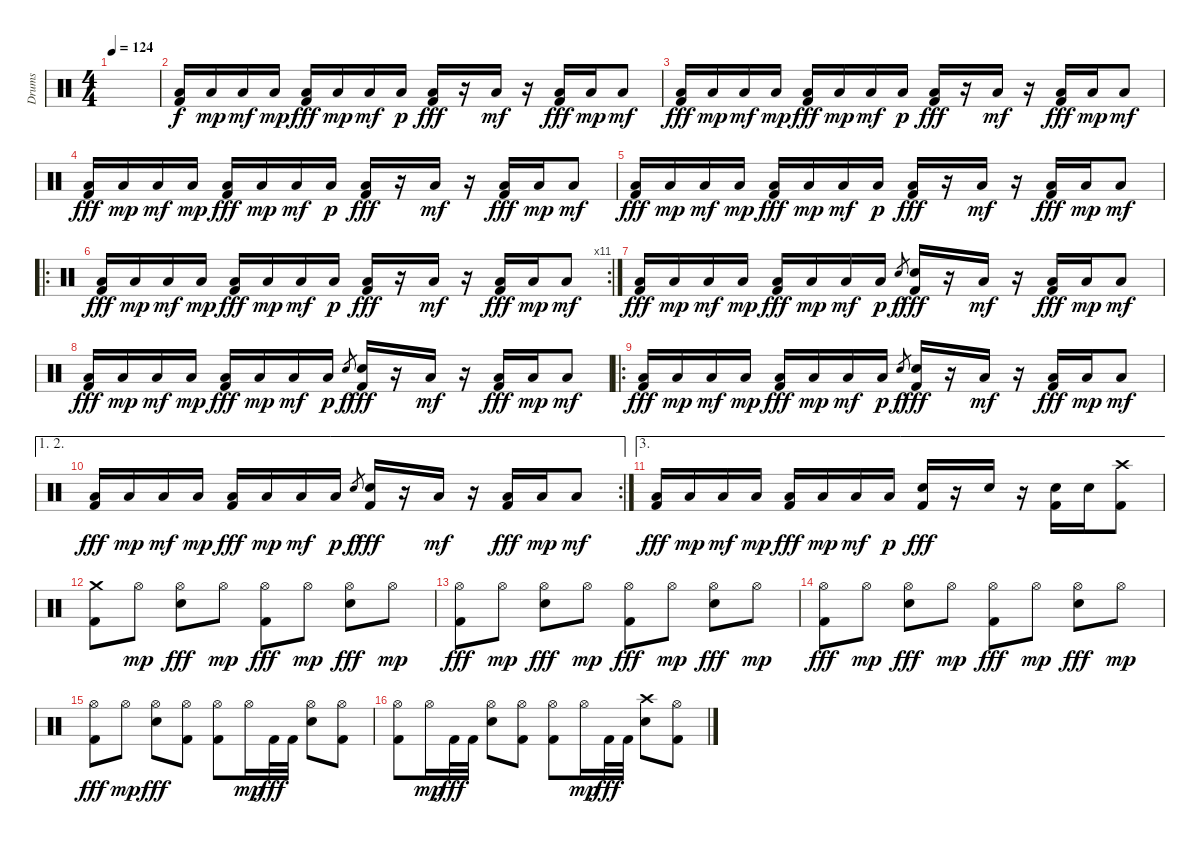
\track ("Drums" "Drums") {instrument percussion}
\staff {score}
\articulation defaults
\ts (4 4)
\tempo 124
\clef neutral
\ks c
|
("Low Floor Tom (hit)" "Kick (hit) 2").16 "Low Floor Tom (hit)".16{dy mp} "Low Floor Tom (hit)".16{dy mf} "Low Floor Tom (hit)".16{dy mp} ("Low Floor Tom (hit)" "Kick (hit) 2").16{dy fff} "Low Floor Tom (hit)".16{dy mp} "Low Floor Tom (hit)".16{dy mf} "Low Floor Tom (hit)".16{dy p} ("Low Floor Tom (hit)" "Kick (hit) 2").16{dy fff} r.16 "Low Floor Tom (hit)".16{dy mf} r.16 ("Low Floor Tom (hit)" "Kick (hit) 2").16{dy fff} "Low Floor Tom (hit)".16{dy mp} "Low Floor Tom (hit)".8{dy mf} |
("Low Floor Tom (hit)" "Kick (hit) 2").16{dy fff} "Low Floor Tom (hit)".16{dy mp} "Low Floor Tom (hit)".16{dy mf} "Low Floor Tom (hit)".16{dy mp} ("Low Floor Tom (hit)" "Kick (hit) 2").16{dy fff} "Low Floor Tom (hit)".16{dy mp} "Low Floor Tom (hit)".16{dy mf} "Low Floor Tom (hit)".16{dy p} ("Low Floor Tom (hit)" "Kick (hit) 2").16{dy fff} r.16 "Low Floor Tom (hit)".16{dy mf} r.16 ("Low Floor Tom (hit)" "Kick (hit) 2").16{dy fff} "Low Floor Tom (hit)".16{dy mp} "Low Floor Tom (hit)".8{dy mf} |
("Low Floor Tom (hit)" "Kick (hit) 2").16{dy fff} "Low Floor Tom (hit)".16{dy mp} "Low Floor Tom (hit)".16{dy mf} "Low Floor Tom (hit)".16{dy mp} ("Low Floor Tom (hit)" "Kick (hit) 2").16{dy fff} "Low Floor Tom (hit)".16{dy mp} "Low Floor Tom (hit)".16{dy mf} "Low Floor Tom (hit)".16{dy p} ("Low Floor Tom (hit)" "Kick (hit) 2").16{dy fff} r.16 "Low Floor Tom (hit)".16{dy mf} r.16 ("Low Floor Tom (hit)" "Kick (hit) 2").16{dy fff} "Low Floor Tom (hit)".16{dy mp} "Low Floor Tom (hit)".8{dy mf} |
("Low Floor Tom (hit)" "Kick (hit) 2").16{dy fff} "Low Floor Tom (hit)".16{dy mp} "Low Floor Tom (hit)".16{dy mf} "Low Floor Tom (hit)".16{dy mp} ("Low Floor Tom (hit)" "Kick (hit) 2").16{dy fff} "Low Floor Tom (hit)".16{dy mp} "Low Floor Tom (hit)".16{dy mf} "Low Floor Tom (hit)".16{dy p} ("Low Floor Tom (hit)" "Kick (hit) 2").16{dy fff} r.16 "Low Floor Tom (hit)".16{dy mf} r.16 ("Low Floor Tom (hit)" "Kick (hit) 2").16{dy fff} "Low Floor Tom (hit)".16{dy mp} "Low Floor Tom (hit)".8{dy mf} |
\ro
\rc 11
("Low Floor Tom (hit)" "Kick (hit) 2").16{dy fff} "Low Floor Tom (hit)".16{dy mp} "Low Floor Tom (hit)".16{dy mf} "Low Floor Tom (hit)".16{dy mp} ("Low Floor Tom (hit)" "Kick (hit) 2").16{dy fff} "Low Floor Tom (hit)".16{dy mp} "Low Floor Tom (hit)".16{dy mf} "Low Floor Tom (hit)".16{dy p} ("Low Floor Tom (hit)" "Kick (hit) 2").16{dy fff} r.16 "Low Floor Tom (hit)".16{dy mf} r.16 ("Low Floor Tom (hit)" "Kick (hit) 2").16{dy fff} "Low Floor Tom (hit)".16{dy mp} "Low Floor Tom (hit)".8{dy mf} |
("Low Floor Tom (hit)" "Kick (hit) 2").16{dy fff} "Low Floor Tom (hit)".16{dy mp} "Low Floor Tom (hit)".16{dy mf} "Low Floor Tom (hit)".16{dy mp} ("Low Floor Tom (hit)" "Kick (hit) 2").16{dy fff} "Low Floor Tom (hit)".16{dy mp} "Low Floor Tom (hit)".16{dy mf} "Low Floor Tom (hit)".16{dy p} "Electric Snare (hit)".8{gr dy f} ("Electric Snare (hit)" "Kick (hit) 2").16{dy fff} r.16 "Low Floor Tom (hit)".16{dy mf} r.16 ("Low Floor Tom (hit)" "Kick (hit) 2").16{dy fff} "Low Floor Tom (hit)".16{dy mp} "Low Floor Tom (hit)".8{dy mf} |
("Low Floor Tom (hit)" "Kick (hit) 2").16{dy fff} "Low Floor Tom (hit)".16{dy mp} "Low Floor Tom (hit)".16{dy mf} "Low Floor Tom (hit)".16{dy mp} ("Low Floor Tom (hit)" "Kick (hit) 2").16{dy fff} "Low Floor Tom (hit)".16{dy mp} "Low Floor Tom (hit)".16{dy mf} "Low Floor Tom (hit)".16{dy p} "Electric Snare (hit)".8{gr dy f} ("Electric Snare (hit)" "Kick (hit) 2").16{dy fff} r.16 "Low Floor Tom (hit)".16{dy mf} r.16 ("Low Floor Tom (hit)" "Kick (hit) 2").16{dy fff} "Low Floor Tom (hit)".16{dy mp} "Low Floor Tom (hit)".8{dy mf} |
\ro
("Low Floor Tom (hit)" "Kick (hit) 2").16{dy fff} "Low Floor Tom (hit)".16{dy mp} "Low Floor Tom (hit)".16{dy mf} "Low Floor Tom (hit)".16{dy mp} ("Low Floor Tom (hit)" "Kick (hit) 2").16{dy fff} "Low Floor Tom (hit)".16{dy mp} "Low Floor Tom (hit)".16{dy mf} "Low Floor Tom (hit)".16{dy p} "Electric Snare (hit)".8{gr dy f} ("Electric Snare (hit)" "Kick (hit) 2").16{dy fff} r.16 "Low Floor Tom (hit)".16{dy mf} r.16 ("Low Floor Tom (hit)" "Kick (hit) 2").16{dy fff} "Low Floor Tom (hit)".16{dy mp} "Low Floor Tom (hit)".8{dy mf} |
\ae (1 2)
\rc 2
("Low Floor Tom (hit)" "Kick (hit) 2").16{dy fff} "Low Floor Tom (hit)".16{dy mp} "Low Floor Tom (hit)".16{dy mf} "Low Floor Tom (hit)".16{dy mp} ("Low Floor Tom (hit)" "Kick (hit) 2").16{dy fff} "Low Floor Tom (hit)".16{dy mp} "Low Floor Tom (hit)".16{dy mf} "Low Floor Tom (hit)".16{dy p} "Electric Snare (hit)".8{gr dy f} ("Electric Snare (hit)" "Kick (hit) 2").16{dy fff} r.16 "Low Floor Tom (hit)".16{dy mf} r.16 ("Low Floor Tom (hit)" "Kick (hit) 2").16{dy fff} "Low Floor Tom (hit)".16{dy mp} "Low Floor Tom (hit)".8{dy mf} |
\ae 3
("Low Floor Tom (hit)" "Kick (hit) 2").16{dy fff} "Low Floor Tom (hit)".16{dy mp} "Low Floor Tom (hit)".16{dy mf} "Low Floor Tom (hit)".16{dy mp} ("Low Floor Tom (hit)" "Kick (hit) 2").16{dy fff} "Low Floor Tom (hit)".16{dy mp} "Low Floor Tom (hit)".16{dy mf} "Low Floor Tom (hit)".16{dy p} ("Electric Snare (hit)" "Kick (hit) 2").16{dy fff} r.16 "Electric Snare (hit)".16 r.16 ("Electric Snare (hit)" "Kick (hit) 2").16 "Electric Snare (hit)".16 ("Crash high (hit)" "Kick (hit) 2").8 |
("Crash medium (hit)" "Kick (hit) 2").8 "Hi-Hat (open)".8{dy mp} ("Hi-Hat (open)" "Electric Snare (hit)").8{dy fff} "Hi-Hat (open)".8{dy mp} ("Hi-Hat (open)" "Kick (hit) 2").8{dy fff} "Hi-Hat (open)".8{dy mp} ("Hi-Hat (open)" "Electric Snare (hit)").8{dy fff} "Hi-Hat (open)".8{dy mp} |
("Hi-Hat (open)" "Kick (hit) 2").8{dy fff} "Hi-Hat (open)".8{dy mp} ("Hi-Hat (open)" "Electric Snare (hit)").8{dy fff} "Hi-Hat (open)".8{dy mp} ("Hi-Hat (open)" "Kick (hit) 2").8{dy fff} "Hi-Hat (open)".8{dy mp} ("Hi-Hat (open)" "Electric Snare (hit)").8{dy fff} "Hi-Hat (open)".8{dy mp} |
("Hi-Hat (open)" "Kick (hit) 2").8{dy fff} "Hi-Hat (open)".8{dy mp} ("Hi-Hat (open)" "Electric Snare (hit)").8{dy fff} "Hi-Hat (open)".8{dy mp} ("Hi-Hat (open)" "Kick (hit) 2").8{dy fff} "Hi-Hat (open)".8{dy mp} ("Hi-Hat (open)" "Electric Snare (hit)").8{dy fff} "Hi-Hat (open)".8{dy mp} |
("Hi-Hat (open)" "Kick (hit) 2").8{dy fff} "Hi-Hat (open)".8{dy mp} ("Hi-Hat (open)" "Electric Snare (hit)").8{dy fff} ("Hi-Hat (open)" "Kick (hit) 2").8 ("Hi-Hat (open)" "Kick (hit) 2").8 "Hi-Hat (open)".16{dy mp} "Kick (hit) 2".32{dy fff} "Kick (hit) 2".32 ("Hi-Hat (open)" "Electric Snare (hit)").8 ("Hi-Hat (open)" "Kick (hit) 2").8 |
("Hi-Hat (open)" "Kick (hit) 2").8 "Hi-Hat (open)".16{dy mp} "Kick (hit) 2".32{dy fff} "Kick (hit) 2".32 ("Hi-Hat (open)" "Electric Snare (hit)").8 ("Hi-Hat (open)" "Kick (hit) 2").8 ("Hi-Hat (open)" "Kick (hit) 2").8 "Hi-Hat (open)".16{dy mp} "Kick (hit) 2".32{dy fff} "Kick (hit) 2".32 ("Crash high (hit)" "Electric Snare (hit)").8 ("Hi-Hat (open)" "Kick (hit) 2").8
